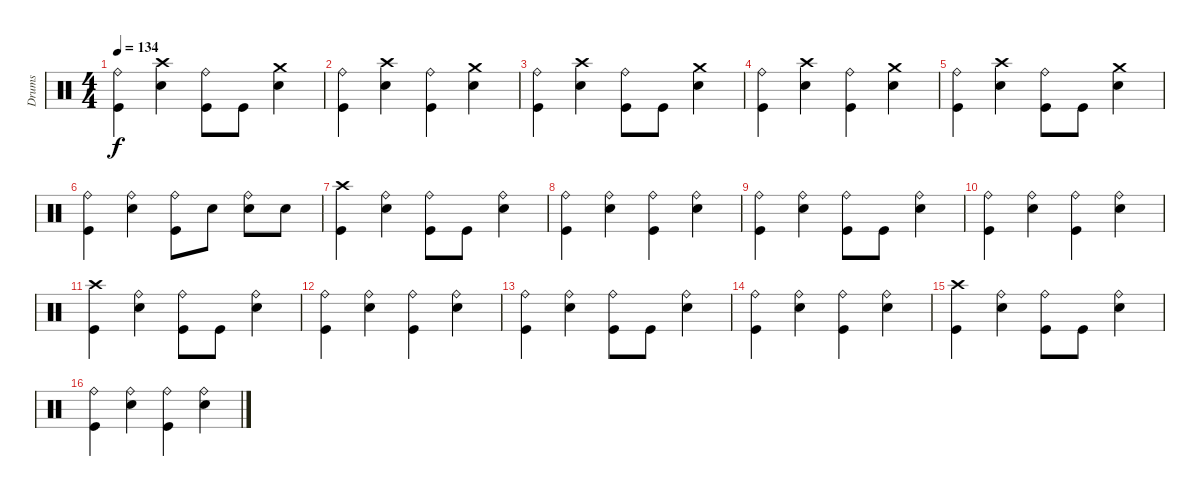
\track ("Drums" "Drums") {instrument percussion}
\staff {score}
\articulation defaults
\ts (4 4)
\tempo 134
\clef neutral
\ks c
("Ride (bell)" "Kick (hit)").4{dy f} ("Crash high (hit)" "Snare (hit) 2").4 ("Ride (bell)" "Kick (hit)").8 "Kick (hit)".8 ("Crash medium (hit)" "Snare (hit) 2").4 |
("Ride (bell)" "Kick (hit)").4 ("Crash high (hit)" "Snare (hit) 2").4 ("Ride (bell)" "Kick (hit)").4 ("Crash medium (hit)" "Snare (hit) 2").4 |
("Ride (bell)" "Kick (hit)").4 ("Crash high (hit)" "Snare (hit) 2").4 ("Ride (bell)" "Kick (hit)").8 "Kick (hit)".8 ("Crash medium (hit)" "Snare (hit) 2").4 |
("Ride (bell)" "Kick (hit)").4 ("Crash high (hit)" "Snare (hit) 2").4 ("Ride (bell)" "Kick (hit)").4 ("Crash medium (hit)" "Snare (hit) 2").4 |
("Ride (bell)" "Kick (hit)").4 ("Crash high (hit)" "Snare (hit) 2").4 ("Ride (bell)" "Kick (hit)").8 "Kick (hit)".8 ("Crash medium (hit)" "Snare (hit) 2").4 |
("Ride (bell)" "Kick (hit)").4 ("Ride (bell)" "Snare (hit) 2").4 ("Ride (bell)" "Kick (hit)").8 "Snare (hit) 2".8 ("Ride (bell)" "Snare (hit) 2").8 "Snare (hit) 2".8 |
("Crash high (hit)" "Kick (hit)").4 ("Ride (bell)" "Snare (hit) 2").4 ("Ride (bell)" "Kick (hit)").8 "Kick (hit)".8 ("Ride (bell)" "Snare (hit) 2").4 |
("Ride (bell)" "Kick (hit)").4 ("Ride (bell)" "Snare (hit) 2").4 ("Ride (bell)" "Kick (hit)").4 ("Ride (bell)" "Snare (hit) 2").4 |
("Ride (bell)" "Kick (hit)").4 ("Ride (bell)" "Snare (hit) 2").4 ("Ride (bell)" "Kick (hit)").8 "Kick (hit)".8 ("Ride (bell)" "Snare (hit) 2").4 |
("Ride (bell)" "Kick (hit)").4 ("Ride (bell)" "Snare (hit) 2").4 ("Ride (bell)" "Kick (hit)").4 ("Ride (bell)" "Snare (hit) 2").4 |
("Crash high (hit)" "Kick (hit)").4 ("Ride (bell)" "Snare (hit) 2").4 ("Ride (bell)" "Kick (hit)").8 "Kick (hit)".8 ("Ride (bell)" "Snare (hit) 2").4 |
("Ride (bell)" "Kick (hit)").4 ("Ride (bell)" "Snare (hit) 2").4 ("Ride (bell)" "Kick (hit)").4 ("Ride (bell)" "Snare (hit) 2").4 |
("Ride (bell)" "Kick (hit)").4 ("Ride (bell)" "Snare (hit) 2").4 ("Ride (bell)" "Kick (hit)").8 "Kick (hit)".8 ("Ride (bell)" "Snare (hit) 2").4 |
("Ride (bell)" "Kick (hit)").4 ("Ride (bell)" "Snare (hit) 2").4 ("Ride (bell)" "Kick (hit)").4 ("Ride (bell)" "Snare (hit) 2").4 |
("Crash high (hit)" "Kick (hit)").4 ("Ride (bell)" "Snare (hit) 2").4 ("Ride (bell)" "Kick (hit)").8 "Kick (hit)".8 ("Ride (bell)" "Snare (hit) 2").4 |
("Ride (bell)" "Kick (hit)").4 ("Ride (bell)" "Snare (hit) 2").4 ("Ride (bell)" "Kick (hit)").4 ("Ride (bell)" "Snare (hit) 2").4
